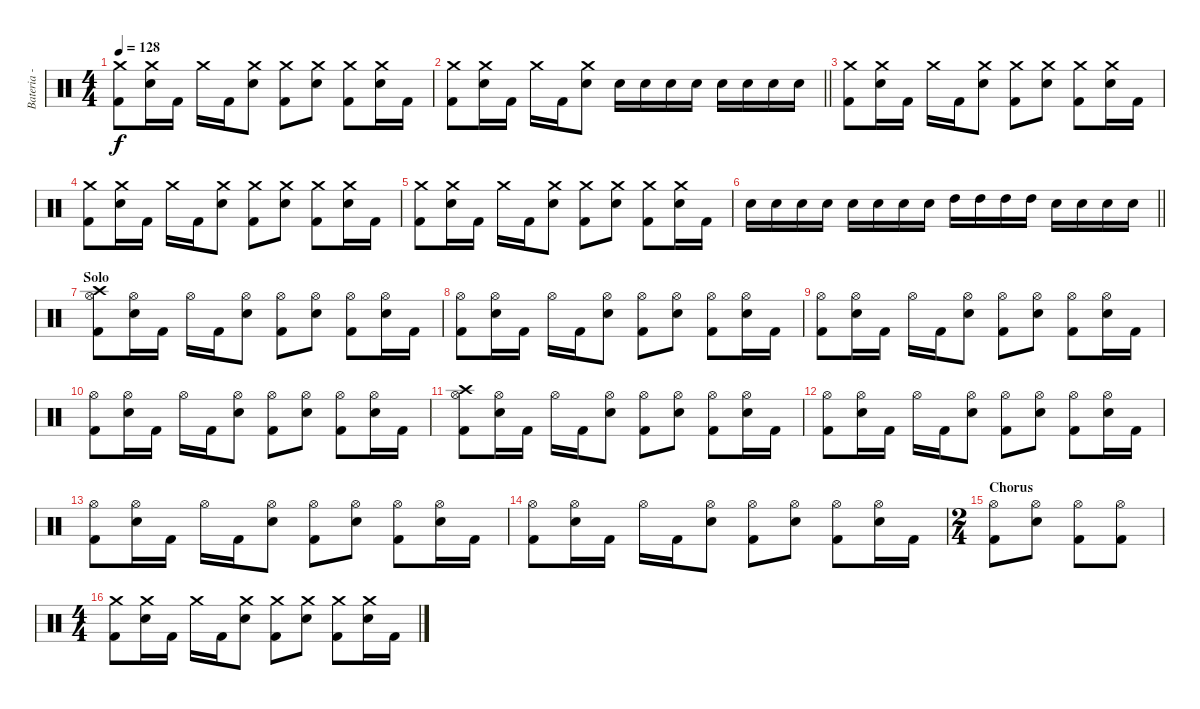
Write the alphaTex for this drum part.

\track ("Bateria - Larzon" "Bateria - ") {instrument percussion}
\staff {score}
\articulation defaults
\ts (4 4)
\tempo 128
\clef neutral
\ks c
("Kick (hit) 2" "Crash medium (hit)").8{dy f} ("Electric Snare (hit)" "Crash medium (hit)").16 "Kick (hit) 2".16 "Crash medium (hit)".16 "Kick (hit) 2".16 ("Electric Snare (hit)" "Crash medium (hit)").8 ("Kick (hit) 2" "Crash medium (hit)").8 ("Electric Snare (hit)" "Crash medium (hit)").8 ("Kick (hit) 2" "Crash medium (hit)").8 ("Electric Snare (hit)" "Crash medium (hit)").16 "Kick (hit) 2".16 |
\barLineRight lightlight
("Kick (hit) 2" "Crash medium (hit)").8 ("Electric Snare (hit)" "Crash medium (hit)").16 "Kick (hit) 2".16 "Crash medium (hit)".16 "Kick (hit) 2".16 ("Electric Snare (hit)" "Crash medium (hit)").8 "Electric Snare (hit)".16 "Electric Snare (hit)".16 "Electric Snare (hit)".16 "Electric Snare (hit)".16 "Electric Snare (hit)".16 "Electric Snare (hit)".16 "Electric Snare (hit)".16 "Electric Snare (hit)".16 |
("Kick (hit) 2" "Crash medium (hit)").8 ("Electric Snare (hit)" "Crash medium (hit)").16 "Kick (hit) 2".16 "Crash medium (hit)".16 "Kick (hit) 2".16 ("Electric Snare (hit)" "Crash medium (hit)").8 ("Kick (hit) 2" "Crash medium (hit)").8 ("Electric Snare (hit)" "Crash medium (hit)").8 ("Kick (hit) 2" "Crash medium (hit)").8 ("Electric Snare (hit)" "Crash medium (hit)").16 "Kick (hit) 2".16 |
("Kick (hit) 2" "Crash medium (hit)").8 ("Electric Snare (hit)" "Crash medium (hit)").16 "Kick (hit) 2".16 "Crash medium (hit)".16 "Kick (hit) 2".16 ("Electric Snare (hit)" "Crash medium (hit)").8 ("Kick (hit) 2" "Crash medium (hit)").8 ("Electric Snare (hit)" "Crash medium (hit)").8 ("Kick (hit) 2" "Crash medium (hit)").8 ("Electric Snare (hit)" "Crash medium (hit)").16 "Kick (hit) 2".16 |
("Kick (hit) 2" "Crash medium (hit)").8 ("Electric Snare (hit)" "Crash medium (hit)").16 "Kick (hit) 2".16 "Crash medium (hit)".16 "Kick (hit) 2".16 ("Electric Snare (hit)" "Crash medium (hit)").8 ("Kick (hit) 2" "Crash medium (hit)").8 ("Electric Snare (hit)" "Crash medium (hit)").8 ("Kick (hit) 2" "Crash medium (hit)").8 ("Electric Snare (hit)" "Crash medium (hit)").16 "Kick (hit) 2".16 |
\barLineRight lightlight "Electric Snare (hit)".16 "Electric Snare (hit)".16 "Electric Snare (hit)".16 "Electric Snare (hit)".16 "Electric Snare (hit)".16 "Electric Snare (hit)".16 "Electric Snare (hit)".16 "Electric Snare (hit)".16 "High Tom (hit)".16 "High Tom (hit)".16 "High Tom (hit)".16 "High Tom (hit)".16 "Electric Snare (hit)".16 "Electric Snare (hit)".16 "Electric Snare (hit)".16 "Electric Snare (hit)".16
|
\section ("" "Solo")
("Kick (hit) 2" "Hi-Hat (open)" "Crash high (hit)").8 ("Electric Snare (hit)" "Hi-Hat (open)").16 "Kick (hit) 2".16 "Hi-Hat (open)".16 "Kick (hit) 2".16 ("Electric Snare (hit)" "Hi-Hat (open)").8 ("Kick (hit) 2" "Hi-Hat (open)").8 ("Electric Snare (hit)" "Hi-Hat (open)").8 ("Kick (hit) 2" "Hi-Hat (open)").8 ("Electric Snare (hit)" "Hi-Hat (open)").16 "Kick (hit) 2".16 |
("Kick (hit) 2" "Hi-Hat (open)").8 ("Electric Snare (hit)" "Hi-Hat (open)").16 "Kick (hit) 2".16 "Hi-Hat (open)".16 "Kick (hit) 2".16 ("Electric Snare (hit)" "Hi-Hat (open)").8 ("Kick (hit) 2" "Hi-Hat (open)").8 ("Electric Snare (hit)" "Hi-Hat (open)").8 ("Kick (hit) 2" "Hi-Hat (open)").8 ("Electric Snare (hit)" "Hi-Hat (open)").16 "Kick (hit) 2".16 |
("Kick (hit) 2" "Hi-Hat (open)").8 ("Electric Snare (hit)" "Hi-Hat (open)").16 "Kick (hit) 2".16 "Hi-Hat (open)".16 "Kick (hit) 2".16 ("Electric Snare (hit)" "Hi-Hat (open)").8 ("Kick (hit) 2" "Hi-Hat (open)").8 ("Electric Snare (hit)" "Hi-Hat (open)").8 ("Kick (hit) 2" "Hi-Hat (open)").8 ("Electric Snare (hit)" "Hi-Hat (open)").16 "Kick (hit) 2".16 |
("Kick (hit) 2" "Hi-Hat (open)").8 ("Electric Snare (hit)" "Hi-Hat (open)").16 "Kick (hit) 2".16 "Hi-Hat (open)".16 "Kick (hit) 2".16 ("Electric Snare (hit)" "Hi-Hat (open)").8 ("Kick (hit) 2" "Hi-Hat (open)").8 ("Electric Snare (hit)" "Hi-Hat (open)").8 ("Kick (hit) 2" "Hi-Hat (open)").8 ("Electric Snare (hit)" "Hi-Hat (open)").16 "Kick (hit) 2".16 |
("Kick (hit) 2" "Hi-Hat (open)" "Crash high (hit)").8 ("Electric Snare (hit)" "Hi-Hat (open)").16 "Kick (hit) 2".16 "Hi-Hat (open)".16 "Kick (hit) 2".16 ("Electric Snare (hit)" "Hi-Hat (open)").8 ("Kick (hit) 2" "Hi-Hat (open)").8 ("Electric Snare (hit)" "Hi-Hat (open)").8 ("Kick (hit) 2" "Hi-Hat (open)").8 ("Electric Snare (hit)" "Hi-Hat (open)").16 "Kick (hit) 2".16 |
("Kick (hit) 2" "Hi-Hat (open)").8 ("Electric Snare (hit)" "Hi-Hat (open)").16 "Kick (hit) 2".16 "Hi-Hat (open)".16 "Kick (hit) 2".16 ("Electric Snare (hit)" "Hi-Hat (open)").8 ("Kick (hit) 2" "Hi-Hat (open)").8 ("Electric Snare (hit)" "Hi-Hat (open)").8 ("Kick (hit) 2" "Hi-Hat (open)").8 ("Electric Snare (hit)" "Hi-Hat (open)").16 "Kick (hit) 2".16 |
("Kick (hit) 2" "Hi-Hat (open)").8 ("Electric Snare (hit)" "Hi-Hat (open)").16 "Kick (hit) 2".16 "Hi-Hat (open)".16 "Kick (hit) 2".16 ("Electric Snare (hit)" "Hi-Hat (open)").8 ("Kick (hit) 2" "Hi-Hat (open)").8 ("Electric Snare (hit)" "Hi-Hat (open)").8 ("Kick (hit) 2" "Hi-Hat (open)").8 ("Electric Snare (hit)" "Hi-Hat (open)").16 "Kick (hit) 2".16 |
("Kick (hit) 2" "Hi-Hat (open)").8 ("Electric Snare (hit)" "Hi-Hat (open)").16 "Kick (hit) 2".16 "Hi-Hat (open)".16 "Kick (hit) 2".16 ("Electric Snare (hit)" "Hi-Hat (open)").8 ("Kick (hit) 2" "Hi-Hat (open)").8 ("Electric Snare (hit)" "Hi-Hat (open)").8 ("Kick (hit) 2" "Hi-Hat (open)").8 ("Electric Snare (hit)" "Hi-Hat (open)").16 "Kick (hit) 2".16 |
\ts (2 4)
\section ("" "Chorus")
("Kick (hit) 2" "Hi-Hat (open)").8 ("Electric Snare (hit)" "Hi-Hat (open)").8 ("Kick (hit) 2" "Hi-Hat (open)").8 ("Kick (hit) 2" "Hi-Hat (open)").8 |
\ts (4 4)
("Kick (hit) 2" "Crash medium (hit)").8 ("Electric Snare (hit)" "Crash medium (hit)").16 "Kick (hit) 2".16 "Crash medium (hit)".16 "Kick (hit) 2".16 ("Electric Snare (hit)" "Crash medium (hit)").8 ("Kick (hit) 2" "Crash medium (hit)").8 ("Electric Snare (hit)" "Crash medium (hit)").8 ("Kick (hit) 2" "Crash medium (hit)").8 ("Electric Snare (hit)" "Crash medium (hit)").16 "Kick (hit) 2".16
